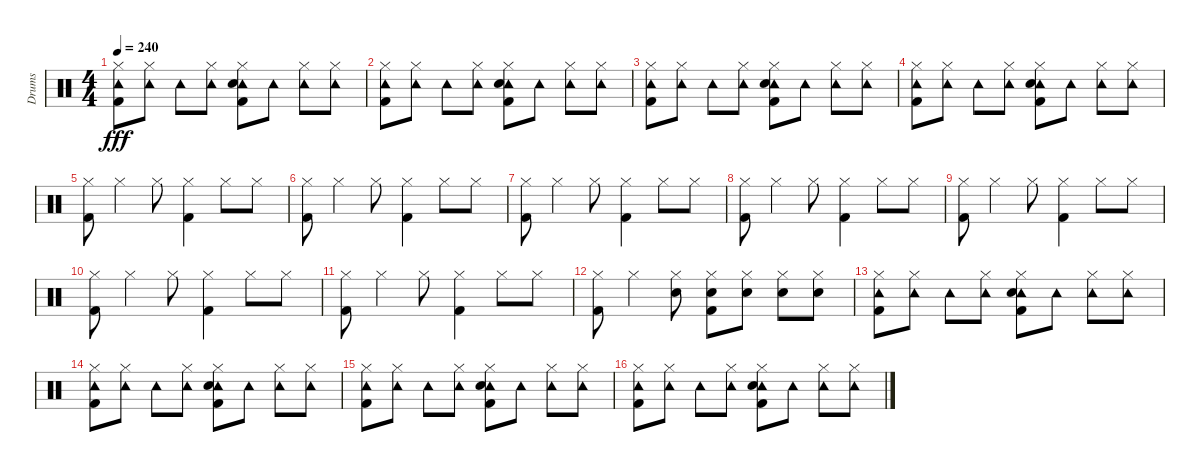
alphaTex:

\track ("Drums" "Drums") {instrument percussion}
\staff {score}
\articulation defaults
\ts (4 4)
\tempo 240
\clef neutral
\ks c
("Tambourine (hit)" "Hi-Hat (closed)" "Kick (hit) 2").8{dy fff} ("Tambourine (hit)" "Hi-Hat (closed)").8 "Tambourine (hit)".8 ("Tambourine (hit)" "Hi-Hat (closed)").8 ("Tambourine (hit)" "Hi-Hat (closed)" "Hand Clap (hit)" "Kick (hit) 2").8 "Tambourine (hit)".8 ("Tambourine (hit)" "Hi-Hat (closed)").8 ("Tambourine (hit)" "Hi-Hat (closed)").8 |
("Tambourine (hit)" "Hi-Hat (closed)" "Kick (hit) 2").8 ("Tambourine (hit)" "Hi-Hat (closed)").8 "Tambourine (hit)".8 ("Tambourine (hit)" "Hi-Hat (closed)").8 ("Tambourine (hit)" "Hi-Hat (closed)" "Hand Clap (hit)" "Kick (hit) 2").8 "Tambourine (hit)".8 ("Tambourine (hit)" "Hi-Hat (closed)").8 ("Tambourine (hit)" "Hi-Hat (closed)").8 |
("Tambourine (hit)" "Hi-Hat (closed)" "Kick (hit) 2").8 ("Tambourine (hit)" "Hi-Hat (closed)").8 "Tambourine (hit)".8 ("Tambourine (hit)" "Hi-Hat (closed)").8 ("Tambourine (hit)" "Hi-Hat (closed)" "Hand Clap (hit)" "Kick (hit) 2").8 "Tambourine (hit)".8 ("Tambourine (hit)" "Hi-Hat (closed)").8 ("Tambourine (hit)" "Hi-Hat (closed)").8 |
("Tambourine (hit)" "Hi-Hat (closed)" "Kick (hit) 2").8 ("Tambourine (hit)" "Hi-Hat (closed)").8 "Tambourine (hit)".8 ("Tambourine (hit)" "Hi-Hat (closed)").8 ("Tambourine (hit)" "Hi-Hat (closed)" "Hand Clap (hit)" "Kick (hit) 2").8 "Tambourine (hit)".8 ("Tambourine (hit)" "Hi-Hat (closed)").8 ("Tambourine (hit)" "Hi-Hat (closed)").8 |
("Hi-Hat (closed)" "Kick (hit) 2").8 "Hi-Hat (closed)".4 "Hi-Hat (closed)".8 ("Hi-Hat (closed)" "Kick (hit) 2").4 "Hi-Hat (closed)".8 "Hi-Hat (closed)".8 |
("Hi-Hat (closed)" "Kick (hit) 2").8 "Hi-Hat (closed)".4 "Hi-Hat (closed)".8 ("Hi-Hat (closed)" "Kick (hit) 2").4 "Hi-Hat (closed)".8 "Hi-Hat (closed)".8 |
("Hi-Hat (closed)" "Kick (hit) 2").8 "Hi-Hat (closed)".4 "Hi-Hat (closed)".8 ("Hi-Hat (closed)" "Kick (hit) 2").4 "Hi-Hat (closed)".8 "Hi-Hat (closed)".8 |
("Hi-Hat (closed)" "Kick (hit) 2").8 "Hi-Hat (closed)".4 "Hi-Hat (closed)".8 ("Hi-Hat (closed)" "Kick (hit) 2").4 "Hi-Hat (closed)".8 "Hi-Hat (closed)".8 |
("Hi-Hat (closed)" "Kick (hit) 2").8 "Hi-Hat (closed)".4 "Hi-Hat (closed)".8 ("Hi-Hat (closed)" "Kick (hit) 2").4 "Hi-Hat (closed)".8 "Hi-Hat (closed)".8 |
("Hi-Hat (closed)" "Kick (hit) 2").8 "Hi-Hat (closed)".4 "Hi-Hat (closed)".8 ("Hi-Hat (closed)" "Kick (hit) 2").4 "Hi-Hat (closed)".8 "Hi-Hat (closed)".8 |
("Hi-Hat (closed)" "Kick (hit) 2").8 "Hi-Hat (closed)".4 "Hi-Hat (closed)".8 ("Hi-Hat (closed)" "Kick (hit) 2").4 "Hi-Hat (closed)".8 "Hi-Hat (closed)".8 |
("Hi-Hat (closed)" "Kick (hit) 2").8 "Hi-Hat (closed)".4 ("Hi-Hat (closed)" "Snare (hit) 2").8 ("Hi-Hat (closed)" "Snare (hit) 2" "Kick (hit) 2").8 ("Hi-Hat (closed)" "Snare (hit) 2").8 ("Hi-Hat (closed)" "Snare (hit) 2").8 ("Hi-Hat (closed)" "Snare (hit) 2").8 |
("Tambourine (hit)" "Hi-Hat (closed)" "Kick (hit) 2").8 ("Tambourine (hit)" "Hi-Hat (closed)").8 "Tambourine (hit)".8 ("Tambourine (hit)" "Hi-Hat (closed)").8 ("Tambourine (hit)" "Hi-Hat (closed)" "Hand Clap (hit)" "Kick (hit) 2").8 "Tambourine (hit)".8 ("Tambourine (hit)" "Hi-Hat (closed)").8 ("Tambourine (hit)" "Hi-Hat (closed)").8 |
("Tambourine (hit)" "Hi-Hat (closed)" "Kick (hit) 2").8 ("Tambourine (hit)" "Hi-Hat (closed)").8 "Tambourine (hit)".8 ("Tambourine (hit)" "Hi-Hat (closed)").8 ("Tambourine (hit)" "Hi-Hat (closed)" "Hand Clap (hit)" "Kick (hit) 2").8 "Tambourine (hit)".8 ("Tambourine (hit)" "Hi-Hat (closed)").8 ("Tambourine (hit)" "Hi-Hat (closed)").8 |
("Tambourine (hit)" "Hi-Hat (closed)" "Kick (hit) 2").8 ("Tambourine (hit)" "Hi-Hat (closed)").8 "Tambourine (hit)".8 ("Tambourine (hit)" "Hi-Hat (closed)").8 ("Tambourine (hit)" "Hi-Hat (closed)" "Hand Clap (hit)" "Kick (hit) 2").8 "Tambourine (hit)".8 ("Tambourine (hit)" "Hi-Hat (closed)").8 ("Tambourine (hit)" "Hi-Hat (closed)").8 |
("Tambourine (hit)" "Hi-Hat (closed)" "Kick (hit) 2").8 ("Tambourine (hit)" "Hi-Hat (closed)").8 "Tambourine (hit)".8 ("Tambourine (hit)" "Hi-Hat (closed)").8 ("Tambourine (hit)" "Hi-Hat (closed)" "Hand Clap (hit)" "Kick (hit) 2").8 "Tambourine (hit)".8 ("Tambourine (hit)" "Hi-Hat (closed)").8 ("Tambourine (hit)" "Hi-Hat (closed)").8
